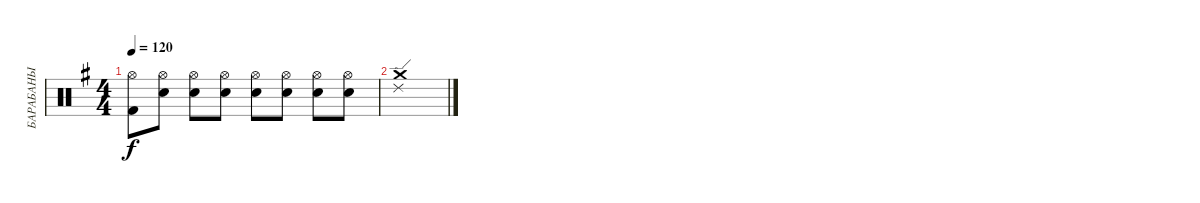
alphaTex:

\track ("БАРАБАНЫ" "БАРАБАНЫ") {instrument percussion}
\staff {score}
\articulation defaults
\ts (4 4)
\tempo 120
\clef neutral
\ks g
("Hi-Hat (open)" "Kick (hit) 2").8{dy f} ("Hi-Hat (open)" "Electric Snare (hit)").8 ("Hi-Hat (open)" "Electric Snare (hit)").8 ("Hi-Hat (open)" "Electric Snare (hit)").8 ("Hi-Hat (open)" "Electric Snare (hit)").8 ("Hi-Hat (open)" "Electric Snare (hit)").8 ("Hi-Hat (open)" "Electric Snare (hit)").8 ("Hi-Hat (open)" "Electric Snare (hit)").8 |
("Crash medium (hit)" "Ride (edge) 2").1
